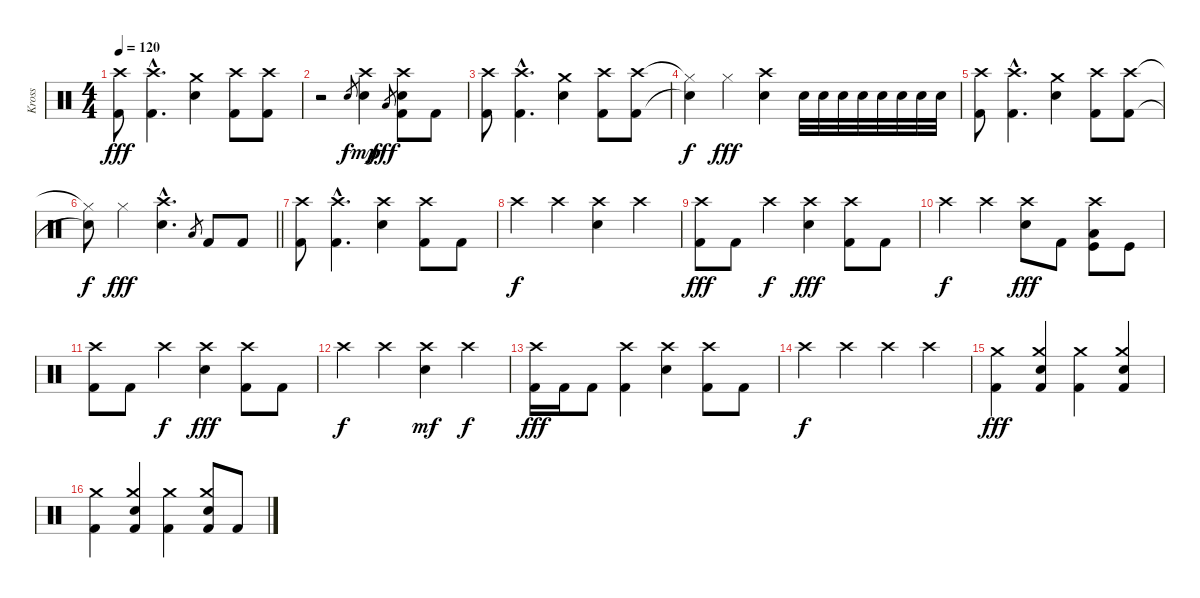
\track ("Kross" "Kross") {instrument percussion}
\staff {score}
\articulation defaults
\ts (4 4)
\tempo 120
\clef neutral
\ks c
("Crash high (hit)" "Kick (hit) 2").8{dy fff} ("Crash high (hit)"{hac} "Kick (hit) 2"{hac}).4{d} ("Crash medium (hit)" "Electric Snare (hit)").4 ("Crash high (hit)" "Kick (hit) 2").8 ("Crash high (hit)" "Kick (hit) 2").8 |
r.2 "Electric Snare (hit)".8{gr dy f} ("Crash high (hit)" "Electric Snare (hit)").4{dy mp} "Low Tom (hit)".8{gr dy fff} ("Crash high (hit)" "Electric Snare (hit)" "Kick (hit) 2").8 "Kick (hit) 2".8 |
("Crash high (hit)" "Kick (hit) 2").8 ("Crash high (hit)"{hac} "Kick (hit) 2"{hac}).4{d} ("Crash medium (hit)" "Electric Snare (hit)").4 ("Crash high (hit)" "Kick (hit) 2").8 ("Crash high (hit)" "Kick (hit) 2").8 |
("Hi-Hat (closed)"{t} "Snare (hit)"{t}).4{dy f} "Hi-Hat (closed)".4{dy fff} ("Crash high (hit)" "Electric Snare (hit)").4 "Electric Snare (hit)".32 "Electric Snare (hit)".32 "Electric Snare (hit)".32 "Electric Snare (hit)".32 "Electric Snare (hit)".32 "Electric Snare (hit)".32 "Electric Snare (hit)".32 "Electric Snare (hit)".32 |
("Crash high (hit)" "Kick (hit) 2").8 ("Crash high (hit)"{hac} "Kick (hit) 2"{hac}).4{d} ("Crash medium (hit)" "Electric Snare (hit)").4 ("Crash high (hit)" "Kick (hit) 2").8 ("Crash high (hit)" "Kick (hit) 2").8 |
\barLineRight lightlight
("Hi-Hat (closed)"{t} "Snare (hit)"{t}).8{dy f} "Hi-Hat (closed)".4{dy fff} ("Crash high (hit)"{hac} "Electric Snare (hit)"{hac}).4{d} "Low Tom (hit)".8{gr} "Kick (hit) 2".8 "Kick (hit) 2".8 |
("Crash high (hit)" "Kick (hit) 2").8 ("Crash high (hit)"{hac} "Kick (hit) 2"{hac}).4{d} ("Crash high (hit)" "Snare (hit) 2").4 ("Crash high (hit)" "Kick (hit) 2").8 "Kick (hit) 2".8 |
"Crash high (hit)".4{dy f} "Crash high (hit)".4 ("Snare (hit) 2" "Crash high (hit)").4 "Crash high (hit)".4 |
("Crash high (hit)" "Kick (hit) 2").8{dy fff} "Kick (hit) 2".8 "Crash high (hit)".4{dy f} ("Crash high (hit)" "Snare (hit) 2").4{dy fff} ("Crash high (hit)" "Kick (hit) 2").8 "Kick (hit) 2".8 |
"Crash high (hit)".4{dy f} "Crash high (hit)".4 ("Crash high (hit)" "Snare (hit) 2").8{dy fff} "Kick (hit) 2".8 ("Crash high (hit)" "Kick (hit)" "Low Tom (hit)").8 "Kick (hit)".8 |
("Crash high (hit)" "Kick (hit) 2").8 "Kick (hit) 2".8 "Crash high (hit)".4{dy f} ("Crash high (hit)" "Snare (hit) 2").4{dy fff} ("Crash high (hit)" "Kick (hit) 2").8 "Kick (hit) 2".8 |
"Crash high (hit)".4{dy f} "Crash high (hit)".4 ("Snare (hit) 2" "Crash high (hit)").4{dy mf} "Crash high (hit)".4{dy f} |
("Crash high (hit)" "Kick (hit) 2").16{dy fff} "Kick (hit) 2".16 "Kick (hit) 2".8 ("Crash high (hit)" "Kick (hit) 2").4 ("Crash high (hit)" "Snare (hit) 2").4 ("Crash high (hit)" "Kick (hit) 2").8 "Kick (hit) 2".8 |
"Crash high (hit)".4{dy f} "Crash high (hit)".4 "Crash high (hit)".4 "Crash high (hit)".4 |
("Crash medium (hit)" "Kick (hit) 2").4{dy fff} ("Snare (hit) 2" "Crash medium (hit)" "Kick (hit) 2").4 ("Crash medium (hit)" "Kick (hit) 2").4 ("Snare (hit) 2" "Crash medium (hit)" "Kick (hit) 2").4 |
("Crash medium (hit)" "Kick (hit) 2").4 ("Snare (hit) 2" "Crash medium (hit)" "Kick (hit) 2").4 ("Crash medium (hit)" "Kick (hit) 2").4 ("Snare (hit) 2" "Crash medium (hit)" "Kick (hit) 2").8 "Kick (hit) 2".8
